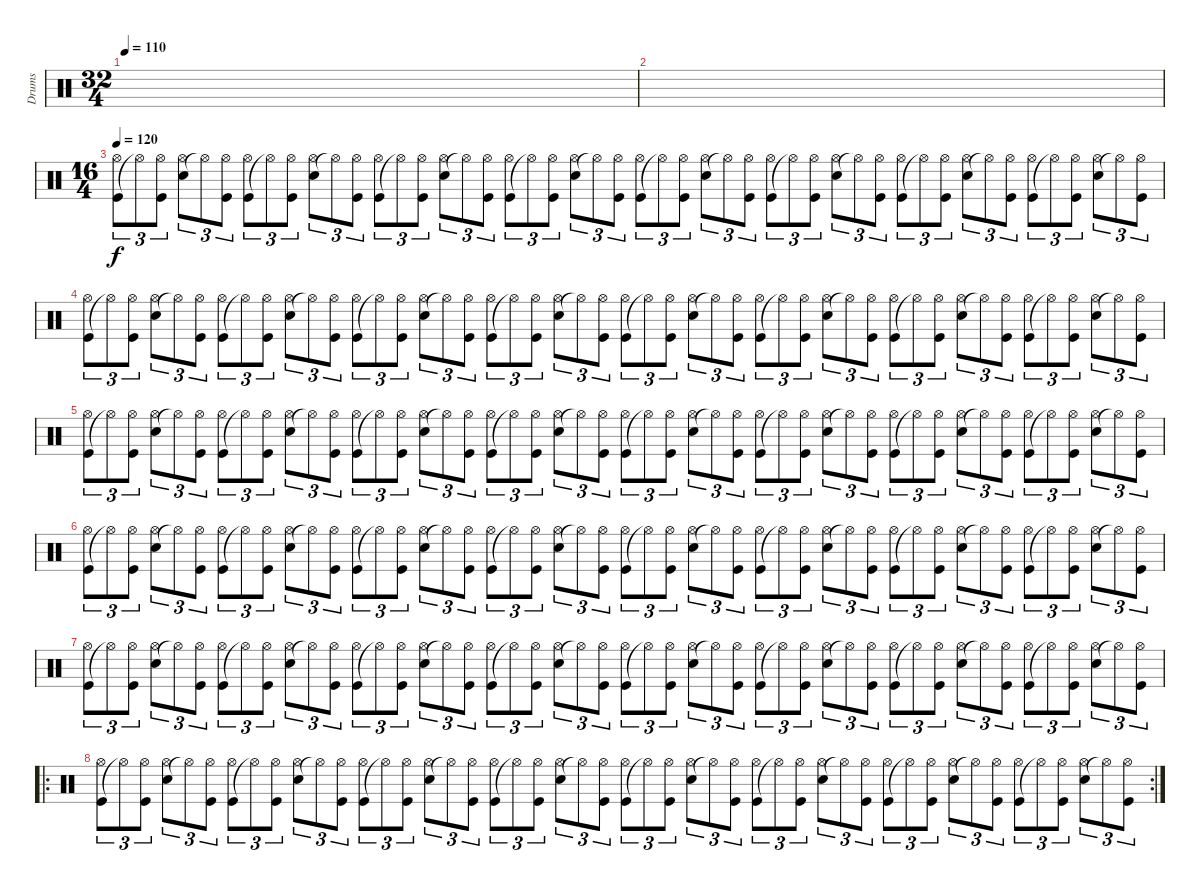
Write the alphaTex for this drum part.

\track ("Drums" "Drums") {instrument percussion}
\staff {score}
\articulation defaults
\ts (32 4)
\tempo 110
\clef neutral
\ks c
|
|
\ts (16 4)
\tempo 120
("Kick (hit)" "Hi-Hat (open)").8{tu (3 2)} "Hi-Hat (open)"{t}.8{tu (3 2)} ("Kick (hit)" "Hi-Hat (open)").8{tu (3 2)} ("Snare (hit) 2" "Hi-Hat (open)").8{tu (3 2)} "Hi-Hat (open)"{t}.8{tu (3 2)} ("Kick (hit)" "Hi-Hat (open)").8{tu (3 2)} ("Kick (hit)" "Hi-Hat (open)").8{tu (3 2)} "Hi-Hat (open)"{t}.8{tu (3 2)} ("Kick (hit)" "Hi-Hat (open)").8{tu (3 2)} ("Snare (hit) 2" "Hi-Hat (open)").8{tu (3 2)} "Hi-Hat (open)"{t}.8{tu (3 2)} ("Kick (hit)" "Hi-Hat (open)").8{tu (3 2)} ("Kick (hit)" "Hi-Hat (open)").8{tu (3 2)} "Hi-Hat (open)"{t}.8{tu (3 2)} ("Kick (hit)" "Hi-Hat (open)").8{tu (3 2)} ("Snare (hit) 2" "Hi-Hat (open)").8{tu (3 2)} "Hi-Hat (open)"{t}.8{tu (3 2)} ("Kick (hit)" "Hi-Hat (open)").8{tu (3 2)} ("Kick (hit)" "Hi-Hat (open)").8{tu (3 2)} "Hi-Hat (open)"{t}.8{tu (3 2)} ("Kick (hit)" "Hi-Hat (open)").8{tu (3 2)} ("Snare (hit) 2" "Hi-Hat (open)").8{tu (3 2)} "Hi-Hat (open)"{t}.8{tu (3 2)} ("Kick (hit)" "Hi-Hat (open)").8{tu (3 2)} ("Kick (hit)" "Hi-Hat (open)").8{tu (3 2)} "Hi-Hat (open)"{t}.8{tu (3 2)} ("Kick (hit)" "Hi-Hat (open)").8{tu (3 2)} ("Snare (hit) 2" "Hi-Hat (open)").8{tu (3 2)} "Hi-Hat (open)"{t}.8{tu (3 2)} ("Kick (hit)" "Hi-Hat (open)").8{tu (3 2)} ("Kick (hit)" "Hi-Hat (open)").8{tu (3 2)} "Hi-Hat (open)"{t}.8{tu (3 2)} ("Kick (hit)" "Hi-Hat (open)").8{tu (3 2)} ("Snare (hit) 2" "Hi-Hat (open)").8{tu (3 2)} "Hi-Hat (open)"{t}.8{tu (3 2)} ("Kick (hit)" "Hi-Hat (open)").8{tu (3 2)} ("Kick (hit)" "Hi-Hat (open)").8{tu (3 2)} "Hi-Hat (open)"{t}.8{tu (3 2)} ("Kick (hit)" "Hi-Hat (open)").8{tu (3 2)} ("Snare (hit) 2" "Hi-Hat (open)").8{tu (3 2)} "Hi-Hat (open)"{t}.8{tu (3 2)} ("Kick (hit)" "Hi-Hat (open)").8{tu (3 2)} ("Kick (hit)" "Hi-Hat (open)").8{tu (3 2)} "Hi-Hat (open)"{t}.8{tu (3 2)} ("Kick (hit)" "Hi-Hat (open)").8{tu (3 2)} ("Snare (hit) 2" "Hi-Hat (open)").8{tu (3 2)} "Hi-Hat (open)"{t}.8{tu (3 2)} ("Kick (hit)" "Hi-Hat (open)").8{tu (3 2)} |
("Kick (hit)" "Hi-Hat (open)").8{tu (3 2)} "Hi-Hat (open)"{t}.8{tu (3 2)} ("Kick (hit)" "Hi-Hat (open)").8{tu (3 2)} ("Snare (hit) 2" "Hi-Hat (open)").8{tu (3 2)} "Hi-Hat (open)"{t}.8{tu (3 2)} ("Kick (hit)" "Hi-Hat (open)").8{tu (3 2)} ("Kick (hit)" "Hi-Hat (open)").8{tu (3 2)} "Hi-Hat (open)"{t}.8{tu (3 2)} ("Kick (hit)" "Hi-Hat (open)").8{tu (3 2)} ("Snare (hit) 2" "Hi-Hat (open)").8{tu (3 2)} "Hi-Hat (open)"{t}.8{tu (3 2)} ("Kick (hit)" "Hi-Hat (open)").8{tu (3 2)} ("Kick (hit)" "Hi-Hat (open)").8{tu (3 2)} "Hi-Hat (open)"{t}.8{tu (3 2)} ("Kick (hit)" "Hi-Hat (open)").8{tu (3 2)} ("Snare (hit) 2" "Hi-Hat (open)").8{tu (3 2)} "Hi-Hat (open)"{t}.8{tu (3 2)} ("Kick (hit)" "Hi-Hat (open)").8{tu (3 2)} ("Kick (hit)" "Hi-Hat (open)").8{tu (3 2)} "Hi-Hat (open)"{t}.8{tu (3 2)} ("Kick (hit)" "Hi-Hat (open)").8{tu (3 2)} ("Snare (hit) 2" "Hi-Hat (open)").8{tu (3 2)} "Hi-Hat (open)"{t}.8{tu (3 2)} ("Kick (hit)" "Hi-Hat (open)").8{tu (3 2)} ("Kick (hit)" "Hi-Hat (open)").8{tu (3 2)} "Hi-Hat (open)"{t}.8{tu (3 2)} ("Kick (hit)" "Hi-Hat (open)").8{tu (3 2)} ("Snare (hit) 2" "Hi-Hat (open)").8{tu (3 2)} "Hi-Hat (open)"{t}.8{tu (3 2)} ("Kick (hit)" "Hi-Hat (open)").8{tu (3 2)} ("Kick (hit)" "Hi-Hat (open)").8{tu (3 2)} "Hi-Hat (open)"{t}.8{tu (3 2)} ("Kick (hit)" "Hi-Hat (open)").8{tu (3 2)} ("Snare (hit) 2" "Hi-Hat (open)").8{tu (3 2)} "Hi-Hat (open)"{t}.8{tu (3 2)} ("Kick (hit)" "Hi-Hat (open)").8{tu (3 2)} ("Kick (hit)" "Hi-Hat (open)").8{tu (3 2)} "Hi-Hat (open)"{t}.8{tu (3 2)} ("Kick (hit)" "Hi-Hat (open)").8{tu (3 2)} ("Snare (hit) 2" "Hi-Hat (open)").8{tu (3 2)} "Hi-Hat (open)"{t}.8{tu (3 2)} ("Kick (hit)" "Hi-Hat (open)").8{tu (3 2)} ("Kick (hit)" "Hi-Hat (open)").8{tu (3 2)} "Hi-Hat (open)"{t}.8{tu (3 2)} ("Kick (hit)" "Hi-Hat (open)").8{tu (3 2)} ("Snare (hit) 2" "Hi-Hat (open)").8{tu (3 2)} "Hi-Hat (open)"{t}.8{tu (3 2)} ("Kick (hit)" "Hi-Hat (open)").8{tu (3 2)} |
("Kick (hit)" "Hi-Hat (open)").8{tu (3 2)} "Hi-Hat (open)"{t}.8{tu (3 2)} ("Kick (hit)" "Hi-Hat (open)").8{tu (3 2)} ("Snare (hit) 2" "Hi-Hat (open)").8{tu (3 2)} "Hi-Hat (open)"{t}.8{tu (3 2)} ("Kick (hit)" "Hi-Hat (open)").8{tu (3 2)} ("Kick (hit)" "Hi-Hat (open)").8{tu (3 2)} "Hi-Hat (open)"{t}.8{tu (3 2)} ("Kick (hit)" "Hi-Hat (open)").8{tu (3 2)} ("Snare (hit) 2" "Hi-Hat (open)").8{tu (3 2)} "Hi-Hat (open)"{t}.8{tu (3 2)} ("Kick (hit)" "Hi-Hat (open)").8{tu (3 2)} ("Kick (hit)" "Hi-Hat (open)").8{tu (3 2)} "Hi-Hat (open)"{t}.8{tu (3 2)} ("Kick (hit)" "Hi-Hat (open)").8{tu (3 2)} ("Snare (hit) 2" "Hi-Hat (open)").8{tu (3 2)} "Hi-Hat (open)"{t}.8{tu (3 2)} ("Kick (hit)" "Hi-Hat (open)").8{tu (3 2)} ("Kick (hit)" "Hi-Hat (open)").8{tu (3 2)} "Hi-Hat (open)"{t}.8{tu (3 2)} ("Kick (hit)" "Hi-Hat (open)").8{tu (3 2)} ("Snare (hit) 2" "Hi-Hat (open)").8{tu (3 2)} "Hi-Hat (open)"{t}.8{tu (3 2)} ("Kick (hit)" "Hi-Hat (open)").8{tu (3 2)} ("Kick (hit)" "Hi-Hat (open)").8{tu (3 2)} "Hi-Hat (open)"{t}.8{tu (3 2)} ("Kick (hit)" "Hi-Hat (open)").8{tu (3 2)} ("Snare (hit) 2" "Hi-Hat (open)").8{tu (3 2)} "Hi-Hat (open)"{t}.8{tu (3 2)} ("Kick (hit)" "Hi-Hat (open)").8{tu (3 2)} ("Kick (hit)" "Hi-Hat (open)").8{tu (3 2)} "Hi-Hat (open)"{t}.8{tu (3 2)} ("Kick (hit)" "Hi-Hat (open)").8{tu (3 2)} ("Snare (hit) 2" "Hi-Hat (open)").8{tu (3 2)} "Hi-Hat (open)"{t}.8{tu (3 2)} ("Kick (hit)" "Hi-Hat (open)").8{tu (3 2)} ("Kick (hit)" "Hi-Hat (open)").8{tu (3 2)} "Hi-Hat (open)"{t}.8{tu (3 2)} ("Kick (hit)" "Hi-Hat (open)").8{tu (3 2)} ("Snare (hit) 2" "Hi-Hat (open)").8{tu (3 2)} "Hi-Hat (open)"{t}.8{tu (3 2)} ("Kick (hit)" "Hi-Hat (open)").8{tu (3 2)} ("Kick (hit)" "Hi-Hat (open)").8{tu (3 2)} "Hi-Hat (open)"{t}.8{tu (3 2)} ("Kick (hit)" "Hi-Hat (open)").8{tu (3 2)} ("Snare (hit) 2" "Hi-Hat (open)").8{tu (3 2)} "Hi-Hat (open)"{t}.8{tu (3 2)} ("Kick (hit)" "Hi-Hat (open)").8{tu (3 2)} |
("Kick (hit)" "Hi-Hat (open)").8{tu (3 2)} "Hi-Hat (open)"{t}.8{tu (3 2)} ("Kick (hit)" "Hi-Hat (open)").8{tu (3 2)} ("Snare (hit) 2" "Hi-Hat (open)").8{tu (3 2)} "Hi-Hat (open)"{t}.8{tu (3 2)} ("Kick (hit)" "Hi-Hat (open)").8{tu (3 2)} ("Kick (hit)" "Hi-Hat (open)").8{tu (3 2)} "Hi-Hat (open)"{t}.8{tu (3 2)} ("Kick (hit)" "Hi-Hat (open)").8{tu (3 2)} ("Snare (hit) 2" "Hi-Hat (open)").8{tu (3 2)} "Hi-Hat (open)"{t}.8{tu (3 2)} ("Kick (hit)" "Hi-Hat (open)").8{tu (3 2)} ("Kick (hit)" "Hi-Hat (open)").8{tu (3 2)} "Hi-Hat (open)"{t}.8{tu (3 2)} ("Kick (hit)" "Hi-Hat (open)").8{tu (3 2)} ("Snare (hit) 2" "Hi-Hat (open)").8{tu (3 2)} "Hi-Hat (open)"{t}.8{tu (3 2)} ("Kick (hit)" "Hi-Hat (open)").8{tu (3 2)} ("Kick (hit)" "Hi-Hat (open)").8{tu (3 2)} "Hi-Hat (open)"{t}.8{tu (3 2)} ("Kick (hit)" "Hi-Hat (open)").8{tu (3 2)} ("Snare (hit) 2" "Hi-Hat (open)").8{tu (3 2)} "Hi-Hat (open)"{t}.8{tu (3 2)} ("Kick (hit)" "Hi-Hat (open)").8{tu (3 2)} ("Kick (hit)" "Hi-Hat (open)").8{tu (3 2)} "Hi-Hat (open)"{t}.8{tu (3 2)} ("Kick (hit)" "Hi-Hat (open)").8{tu (3 2)} ("Snare (hit) 2" "Hi-Hat (open)").8{tu (3 2)} "Hi-Hat (open)"{t}.8{tu (3 2)} ("Kick (hit)" "Hi-Hat (open)").8{tu (3 2)} ("Kick (hit)" "Hi-Hat (open)").8{tu (3 2)} "Hi-Hat (open)"{t}.8{tu (3 2)} ("Kick (hit)" "Hi-Hat (open)").8{tu (3 2)} ("Snare (hit) 2" "Hi-Hat (open)").8{tu (3 2)} "Hi-Hat (open)"{t}.8{tu (3 2)} ("Kick (hit)" "Hi-Hat (open)").8{tu (3 2)} ("Kick (hit)" "Hi-Hat (open)").8{tu (3 2)} "Hi-Hat (open)"{t}.8{tu (3 2)} ("Kick (hit)" "Hi-Hat (open)").8{tu (3 2)} ("Snare (hit) 2" "Hi-Hat (open)").8{tu (3 2)} "Hi-Hat (open)"{t}.8{tu (3 2)} ("Kick (hit)" "Hi-Hat (open)").8{tu (3 2)} ("Kick (hit)" "Hi-Hat (open)").8{tu (3 2)} "Hi-Hat (open)"{t}.8{tu (3 2)} ("Kick (hit)" "Hi-Hat (open)").8{tu (3 2)} ("Snare (hit) 2" "Hi-Hat (open)").8{tu (3 2)} "Hi-Hat (open)"{t}.8{tu (3 2)} ("Kick (hit)" "Hi-Hat (open)").8{tu (3 2)} |
("Kick (hit)" "Hi-Hat (open)").8{tu (3 2)} "Hi-Hat (open)"{t}.8{tu (3 2)} ("Kick (hit)" "Hi-Hat (open)").8{tu (3 2)} ("Snare (hit) 2" "Hi-Hat (open)").8{tu (3 2)} "Hi-Hat (open)"{t}.8{tu (3 2)} ("Kick (hit)" "Hi-Hat (open)").8{tu (3 2)} ("Kick (hit)" "Hi-Hat (open)").8{tu (3 2)} "Hi-Hat (open)"{t}.8{tu (3 2)} ("Kick (hit)" "Hi-Hat (open)").8{tu (3 2)} ("Snare (hit) 2" "Hi-Hat (open)").8{tu (3 2)} "Hi-Hat (open)"{t}.8{tu (3 2)} ("Kick (hit)" "Hi-Hat (open)").8{tu (3 2)} ("Kick (hit)" "Hi-Hat (open)").8{tu (3 2)} "Hi-Hat (open)"{t}.8{tu (3 2)} ("Kick (hit)" "Hi-Hat (open)").8{tu (3 2)} ("Snare (hit) 2" "Hi-Hat (open)").8{tu (3 2)} "Hi-Hat (open)"{t}.8{tu (3 2)} ("Kick (hit)" "Hi-Hat (open)").8{tu (3 2)} ("Kick (hit)" "Hi-Hat (open)").8{tu (3 2)} "Hi-Hat (open)"{t}.8{tu (3 2)} ("Kick (hit)" "Hi-Hat (open)").8{tu (3 2)} ("Snare (hit) 2" "Hi-Hat (open)").8{tu (3 2)} "Hi-Hat (open)"{t}.8{tu (3 2)} ("Kick (hit)" "Hi-Hat (open)").8{tu (3 2)} ("Kick (hit)" "Hi-Hat (open)").8{tu (3 2)} "Hi-Hat (open)"{t}.8{tu (3 2)} ("Kick (hit)" "Hi-Hat (open)").8{tu (3 2)} ("Snare (hit) 2" "Hi-Hat (open)").8{tu (3 2)} "Hi-Hat (open)"{t}.8{tu (3 2)} ("Kick (hit)" "Hi-Hat (open)").8{tu (3 2)} ("Kick (hit)" "Hi-Hat (open)").8{tu (3 2)} "Hi-Hat (open)"{t}.8{tu (3 2)} ("Kick (hit)" "Hi-Hat (open)").8{tu (3 2)} ("Snare (hit) 2" "Hi-Hat (open)").8{tu (3 2)} "Hi-Hat (open)"{t}.8{tu (3 2)} ("Kick (hit)" "Hi-Hat (open)").8{tu (3 2)} ("Kick (hit)" "Hi-Hat (open)").8{tu (3 2)} "Hi-Hat (open)"{t}.8{tu (3 2)} ("Kick (hit)" "Hi-Hat (open)").8{tu (3 2)} ("Snare (hit) 2" "Hi-Hat (open)").8{tu (3 2)} "Hi-Hat (open)"{t}.8{tu (3 2)} ("Kick (hit)" "Hi-Hat (open)").8{tu (3 2)} ("Kick (hit)" "Hi-Hat (open)").8{tu (3 2)} "Hi-Hat (open)"{t}.8{tu (3 2)} ("Kick (hit)" "Hi-Hat (open)").8{tu (3 2)} ("Snare (hit) 2" "Hi-Hat (open)").8{tu (3 2)} "Hi-Hat (open)"{t}.8{tu (3 2)} ("Kick (hit)" "Hi-Hat (open)").8{tu (3 2)} |
\ro
\rc 2
("Kick (hit)" "Hi-Hat (open)").8{tu (3 2)} "Hi-Hat (open)"{t}.8{tu (3 2)} ("Kick (hit)" "Hi-Hat (open)").8{tu (3 2)} ("Snare (hit) 2" "Hi-Hat (open)").8{tu (3 2)} "Hi-Hat (open)"{t}.8{tu (3 2)} ("Kick (hit)" "Hi-Hat (open)").8{tu (3 2)} ("Kick (hit)" "Hi-Hat (open)").8{tu (3 2)} "Hi-Hat (open)"{t}.8{tu (3 2)} ("Kick (hit)" "Hi-Hat (open)").8{tu (3 2)} ("Snare (hit) 2" "Hi-Hat (open)").8{tu (3 2)} "Hi-Hat (open)"{t}.8{tu (3 2)} ("Kick (hit)" "Hi-Hat (open)").8{tu (3 2)} ("Kick (hit)" "Hi-Hat (open)").8{tu (3 2)} "Hi-Hat (open)"{t}.8{tu (3 2)} ("Kick (hit)" "Hi-Hat (open)").8{tu (3 2)} ("Snare (hit) 2" "Hi-Hat (open)").8{tu (3 2)} "Hi-Hat (open)"{t}.8{tu (3 2)} ("Kick (hit)" "Hi-Hat (open)").8{tu (3 2)} ("Kick (hit)" "Hi-Hat (open)").8{tu (3 2)} "Hi-Hat (open)"{t}.8{tu (3 2)} ("Kick (hit)" "Hi-Hat (open)").8{tu (3 2)} ("Snare (hit) 2" "Hi-Hat (open)").8{tu (3 2)} "Hi-Hat (open)"{t}.8{tu (3 2)} ("Kick (hit)" "Hi-Hat (open)").8{tu (3 2)} ("Kick (hit)" "Hi-Hat (open)").8{tu (3 2)} "Hi-Hat (open)"{t}.8{tu (3 2)} ("Kick (hit)" "Hi-Hat (open)").8{tu (3 2)} ("Snare (hit) 2" "Hi-Hat (open)").8{tu (3 2)} "Hi-Hat (open)"{t}.8{tu (3 2)} ("Kick (hit)" "Hi-Hat (open)").8{tu (3 2)} ("Kick (hit)" "Hi-Hat (open)").8{tu (3 2)} "Hi-Hat (open)"{t}.8{tu (3 2)} ("Kick (hit)" "Hi-Hat (open)").8{tu (3 2)} ("Snare (hit) 2" "Hi-Hat (open)").8{tu (3 2)} "Hi-Hat (open)"{t}.8{tu (3 2)} ("Kick (hit)" "Hi-Hat (open)").8{tu (3 2)} ("Kick (hit)" "Hi-Hat (open)").8{tu (3 2)} "Hi-Hat (open)"{t}.8{tu (3 2)} ("Kick (hit)" "Hi-Hat (open)").8{tu (3 2)} ("Snare (hit) 2" "Hi-Hat (open)").8{tu (3 2)} "Hi-Hat (open)"{t}.8{tu (3 2)} ("Kick (hit)" "Hi-Hat (open)").8{tu (3 2)} ("Kick (hit)" "Hi-Hat (open)").8{tu (3 2)} "Hi-Hat (open)"{t}.8{tu (3 2)} ("Kick (hit)" "Hi-Hat (open)").8{tu (3 2)} ("Snare (hit) 2" "Hi-Hat (open)").8{tu (3 2)} "Hi-Hat (open)"{t}.8{tu (3 2)} ("Kick (hit)" "Hi-Hat (open)").8{tu (3 2)}
